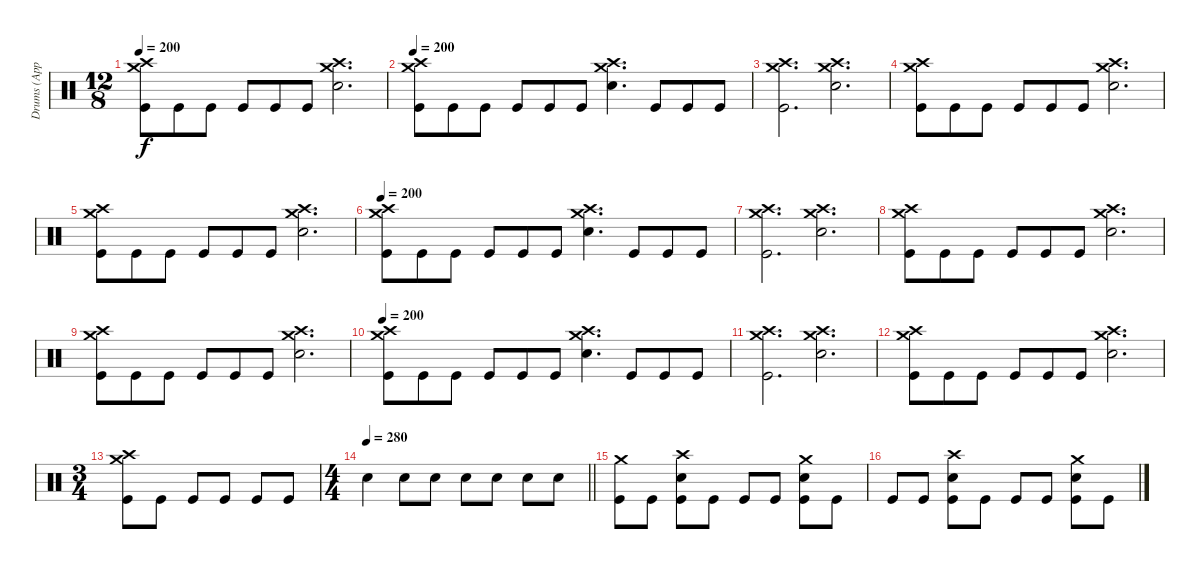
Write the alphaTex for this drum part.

\track ("Drums (Approx.)" "Drums (App") {instrument percussion}
\staff {score}
\articulation defaults
\ts (12 8)
\tempo 200
\clef neutral
\ks c
("Crash medium (hit)" "Crash high (hit)" "Kick (hit)").8{dy f} "Kick (hit)".8 "Kick (hit)".8 "Kick (hit)".8 "Kick (hit)".8 "Kick (hit)".8 ("Crash medium (hit)" "Crash high (hit)" "Electric Snare (hit)").2{d} |
\tempo 200
("Crash medium (hit)" "Crash high (hit)" "Kick (hit)").8 "Kick (hit)".8 "Kick (hit)".8 "Kick (hit)".8 "Kick (hit)".8 "Kick (hit)".8 ("Crash medium (hit)" "Crash high (hit)" "Electric Snare (hit)").4{d} "Kick (hit)".8 "Kick (hit)".8 "Kick (hit)".8 |
("Crash medium (hit)" "Crash high (hit)" "Kick (hit)").2{d} ("Crash medium (hit)" "Crash high (hit)" "Electric Snare (hit)").2{d} |
("Crash medium (hit)" "Crash high (hit)" "Kick (hit)").8 "Kick (hit)".8 "Kick (hit)".8 "Kick (hit)".8 "Kick (hit)".8 "Kick (hit)".8 ("Crash medium (hit)" "Crash high (hit)" "Electric Snare (hit)").2{d} |
("Crash medium (hit)" "Crash high (hit)" "Kick (hit)").8 "Kick (hit)".8 "Kick (hit)".8 "Kick (hit)".8 "Kick (hit)".8 "Kick (hit)".8 ("Crash medium (hit)" "Crash high (hit)" "Electric Snare (hit)").2{d} |
\tempo 200
("Crash medium (hit)" "Crash high (hit)" "Kick (hit)").8 "Kick (hit)".8 "Kick (hit)".8 "Kick (hit)".8 "Kick (hit)".8 "Kick (hit)".8 ("Crash medium (hit)" "Crash high (hit)" "Electric Snare (hit)").4{d} "Kick (hit)".8 "Kick (hit)".8 "Kick (hit)".8 |
("Crash medium (hit)" "Crash high (hit)" "Kick (hit)").2{d} ("Crash medium (hit)" "Crash high (hit)" "Electric Snare (hit)").2{d} |
("Crash medium (hit)" "Crash high (hit)" "Kick (hit)").8 "Kick (hit)".8 "Kick (hit)".8 "Kick (hit)".8 "Kick (hit)".8 "Kick (hit)".8 ("Crash medium (hit)" "Crash high (hit)" "Electric Snare (hit)").2{d} |
("Crash medium (hit)" "Crash high (hit)" "Kick (hit)").8 "Kick (hit)".8 "Kick (hit)".8 "Kick (hit)".8 "Kick (hit)".8 "Kick (hit)".8 ("Crash medium (hit)" "Crash high (hit)" "Electric Snare (hit)").2{d} |
\tempo 200
("Crash medium (hit)" "Crash high (hit)" "Kick (hit)").8 "Kick (hit)".8 "Kick (hit)".8 "Kick (hit)".8 "Kick (hit)".8 "Kick (hit)".8 ("Crash medium (hit)" "Crash high (hit)" "Electric Snare (hit)").4{d} "Kick (hit)".8 "Kick (hit)".8 "Kick (hit)".8 |
("Crash medium (hit)" "Crash high (hit)" "Kick (hit)").2{d} ("Crash medium (hit)" "Crash high (hit)" "Electric Snare (hit)").2{d} |
("Crash medium (hit)" "Crash high (hit)" "Kick (hit)").8 "Kick (hit)".8 "Kick (hit)".8 "Kick (hit)".8 "Kick (hit)".8 "Kick (hit)".8 ("Crash medium (hit)" "Crash high (hit)" "Electric Snare (hit)").2{d} |
\ts (3 4)
("Crash medium (hit)" "Crash high (hit)" "Kick (hit)").8 "Kick (hit)".8 "Kick (hit)".8 "Kick (hit)".8 "Kick (hit)".8 "Kick (hit)".8 |
\ts (4 4)
\tempo 280
\barLineRight lightlight "Electric Snare (hit)".4 "Electric Snare (hit)".8 "Electric Snare (hit)".8 "Electric Snare (hit)".8 "Electric Snare (hit)".8 "Electric Snare (hit)".8 "Electric Snare (hit)".8
|
\section ("" "")
("Crash medium (hit)" "Kick (hit)").8 "Kick (hit)".8 ("Crash high (hit)" "Electric Snare (hit)" "Kick (hit)").8 "Kick (hit)".8 "Kick (hit)".8 "Kick (hit)".8 ("Crash medium (hit)" "Electric Snare (hit)" "Kick (hit)").8 "Kick (hit)".8 |
"Kick (hit)".8 "Kick (hit)".8 ("Crash high (hit)" "Electric Snare (hit)" "Kick (hit)").8 "Kick (hit)".8 "Kick (hit)".8 "Kick (hit)".8 ("Crash medium (hit)" "Electric Snare (hit)" "Kick (hit)").8 "Kick (hit)".8
